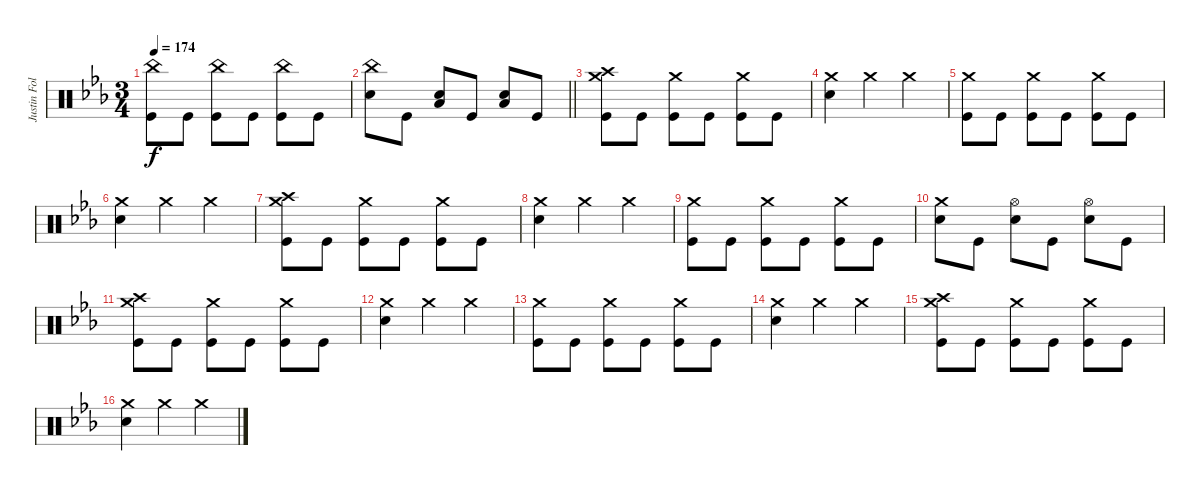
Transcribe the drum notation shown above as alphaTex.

\track ("Justin Foley" "Justin Fol") {instrument percussion}
\staff {score}
\articulation defaults
\ts (3 4)
\tempo 174
\clef neutral
\ks cminor
("Kick (hit)" "China (hit)").8{dy f} "Kick (hit)".8 ("Kick (hit)" "China (hit)").8 "Kick (hit)".8 ("Kick (hit)" "China (hit)").8 "Kick (hit)".8 |
\barLineRight lightlight
("Snare (hit) 2" "China (hit)").8 "Kick (hit)".8 ("Snare (hit) 2" "Low Floor Tom (hit)").8 "Kick (hit)".8 ("Snare (hit) 2" "Low Floor Tom (hit)").8 "Kick (hit)".8 |
("Crash medium (hit)" "Kick (hit)" "Crash high (hit)").8 "Kick (hit)".8 ("Crash medium (hit)" "Kick (hit)").8 "Kick (hit)".8 ("Crash medium (hit)" "Kick (hit)").8 "Kick (hit)".8 |
("Crash medium (hit)" "Snare (hit) 2").4 "Crash medium (hit)".4 "Crash medium (hit)".4 |
("Crash medium (hit)" "Kick (hit)").8 "Kick (hit)".8 ("Crash medium (hit)" "Kick (hit)").8 "Kick (hit)".8 ("Crash medium (hit)" "Kick (hit)").8 "Kick (hit)".8 |
("Crash medium (hit)" "Snare (hit) 2").4 "Crash medium (hit)".4 "Crash medium (hit)".4 |
("Crash medium (hit)" "Kick (hit)" "Crash high (hit)").8 "Kick (hit)".8 ("Crash medium (hit)" "Kick (hit)").8 "Kick (hit)".8 ("Crash medium (hit)" "Kick (hit)").8 "Kick (hit)".8 |
("Crash medium (hit)" "Snare (hit) 2").4 "Crash medium (hit)".4 "Crash medium (hit)".4 |
("Crash medium (hit)" "Kick (hit)").8 "Kick (hit)".8 ("Crash medium (hit)" "Kick (hit)").8 "Kick (hit)".8 ("Crash medium (hit)" "Kick (hit)").8 "Kick (hit)".8 |
("Snare (hit) 2" "Crash medium (hit)").8 "Kick (hit)".8 ("Snare (hit) 2" "Hi-Hat (open)").8 "Kick (hit)".8 ("Snare (hit) 2" "Hi-Hat (open)").8 "Kick (hit)".8 |
("Crash high (hit)" "Kick (hit)" "Crash medium (hit)").8 "Kick (hit)".8 ("Crash medium (hit)" "Kick (hit)").8 "Kick (hit)".8 ("Crash medium (hit)" "Kick (hit)").8 "Kick (hit)".8 |
("Crash medium (hit)" "Snare (hit) 2").4 "Crash medium (hit)".4 "Crash medium (hit)".4 |
("Crash medium (hit)" "Kick (hit)").8 "Kick (hit)".8 ("Crash medium (hit)" "Kick (hit)").8 "Kick (hit)".8 ("Crash medium (hit)" "Kick (hit)").8 "Kick (hit)".8 |
("Crash medium (hit)" "Snare (hit) 2").4 "Crash medium (hit)".4 "Crash medium (hit)".4 |
("Crash medium (hit)" "Kick (hit)" "Crash high (hit)").8 "Kick (hit)".8 ("Crash medium (hit)" "Kick (hit)").8 "Kick (hit)".8 ("Crash medium (hit)" "Kick (hit)").8 "Kick (hit)".8 |
("Crash medium (hit)" "Snare (hit) 2").4 "Crash medium (hit)".4 "Crash medium (hit)".4
